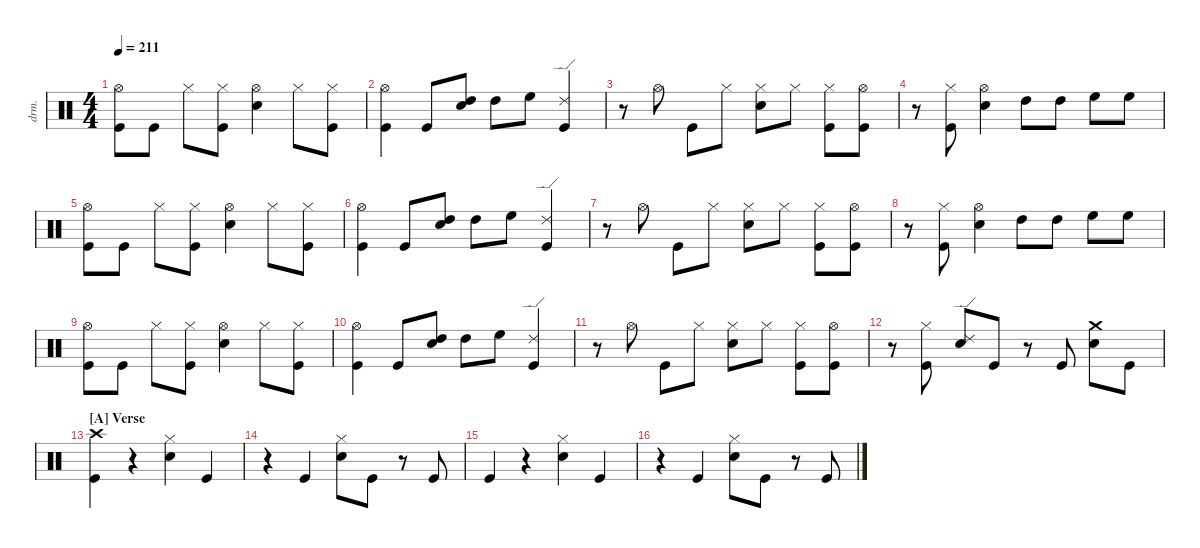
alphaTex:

\defaultSystemsLayout 4
\hideDynamics
\bracketExtendMode nobrackets
\track ("Drums" "drm.") {instrument percussion}
\staff {score}
\articulation defaults
\ts (4 4)
\tempo 211
\clef neutral
\ks c
("Kick (hit)" "Hi-Hat (open)"{acc #}).8{dy f} "Kick (hit)".8{dy fff} "Hi-Hat (closed)"{acc #}.8{dy ff} ("Kick (hit)" "Hi-Hat (closed)"{acc #}).8 ("Snare (hit) 2" "Hi-Hat (open)"{acc #}).4 "Hi-Hat (closed)"{acc #}.8 ("Kick (hit)" "Hi-Hat (closed)"{acc #}).8{dy f} |
("Kick (hit)" "Hi-Hat (open)"{acc #}).4{dy fff} "Kick (hit)".8{dy ff} ("Snare (hit) 2" "High Tom (hit)").8 "High Tom (hit)".8{dy mp} "High Floor Tom (hit)".8{dy ff} ("Kick (hit)" "Ride (edge) 2").4 |
r.8 "Hi-Hat (open)"{acc #}.8 "Kick (hit)".8 "Hi-Hat (closed)"{acc #}.8{dy p} ("Snare (hit) 2" "Hi-Hat (closed)"{acc #}).8{dy ff} "Hi-Hat (closed)"{acc #}.8{dy mp} ("Kick (hit)" "Hi-Hat (closed)"{acc #}).8{dy f} ("Kick (hit)" "Hi-Hat (open)"{acc #}).8{dy fff} |
r.8 ("Kick (hit)" "Hi-Hat (closed)"{acc #}).8{dy ff} ("Snare (hit) 2" "Hi-Hat (open)"{acc #}).4 "High Tom (hit)".8 "High Tom (hit)".8{dy f} "High Floor Tom (hit)".8{dy ff} "High Floor Tom (hit)".8{dy f} |
("Kick (hit)" "Hi-Hat (open)"{acc #}).8 "Kick (hit)".8{dy fff} "Hi-Hat (closed)"{acc #}.8{dy ff} ("Kick (hit)" "Hi-Hat (closed)"{acc #}).8 ("Snare (hit) 2" "Hi-Hat (open)"{acc #}).4 "Hi-Hat (closed)"{acc #}.8 ("Kick (hit)" "Hi-Hat (closed)"{acc #}).8{dy f} |
("Kick (hit)" "Hi-Hat (open)"{acc #}).4{dy fff} "Kick (hit)".8{dy ff} ("Snare (hit) 2" "High Tom (hit)").8 "High Tom (hit)".8{dy mp} "High Floor Tom (hit)".8{dy ff} ("Kick (hit)" "Ride (edge) 2").4 |
r.8 "Hi-Hat (open)"{acc #}.8 "Kick (hit)".8 "Hi-Hat (closed)"{acc #}.8{dy mp} ("Snare (hit) 2" "Hi-Hat (closed)"{acc #}).8{dy ff} "Hi-Hat (closed)"{acc #}.8{dy mp} ("Kick (hit)" "Hi-Hat (closed)"{acc #}).8{dy ff} ("Kick (hit)" "Hi-Hat (open)"{acc #}).8 |
r.8 ("Kick (hit)" "Hi-Hat (closed)"{acc #}).8 ("Snare (hit) 2" "Hi-Hat (open)"{acc #}).4 "High Tom (hit)".8 "High Tom (hit)".8{dy f} "High Floor Tom (hit)".8{dy ff} "High Floor Tom (hit)".8{dy f} |
("Kick (hit)" "Hi-Hat (open)"{acc #}).8 "Kick (hit)".8{dy fff} "Hi-Hat (closed)"{acc #}.8{dy ff} ("Kick (hit)" "Hi-Hat (closed)"{acc #}).8 ("Snare (hit) 2" "Hi-Hat (open)"{acc #}).4 "Hi-Hat (closed)"{acc #}.8 ("Kick (hit)" "Hi-Hat (closed)"{acc #}).8{dy f} |
("Kick (hit)" "Hi-Hat (open)"{acc #}).4{dy fff} "Kick (hit)".8{dy ff} ("Snare (hit) 2" "High Tom (hit)").8 "High Tom (hit)".8{dy mp} "High Floor Tom (hit)".8{dy ff} ("Kick (hit)" "Ride (edge) 2").4 |
r.8 "Hi-Hat (open)"{acc #}.8 "Kick (hit)".8 "Hi-Hat (closed)"{acc #}.8{dy p} ("Snare (hit) 2" "Hi-Hat (closed)"{acc #}).8{dy ff} "Hi-Hat (closed)"{acc #}.8{dy mp} ("Kick (hit)" "Hi-Hat (closed)"{acc #}).8{dy ff} ("Kick (hit)" "Hi-Hat (open)"{acc #}).8 |
r.8 ("Kick (hit)" "Hi-Hat (closed)"{acc #}).8 ("Snare (hit) 2" "Ride (edge) 2").8 "Kick (hit)".8 r.8 "Kick (hit)".8 ("Snare (hit) 2" "Crash medium (hit)").8 "Kick (hit)".8{dy f} |
\section ("A" "Verse")
("Kick (hit)" "Crash high (hit)"{acc #}).4{dy fff} r.4 ("Snare (hit) 2" "Hi-Hat (closed)"{acc #}).4{dy ff} "Kick (hit)".4 |
r.4 "Kick (hit)".4 ("Snare (hit) 2" "Hi-Hat (closed)"{acc #}).8 "Kick (hit)".8 r.8 "Kick (hit)".8{dy mp} |
"Kick (hit)".4{dy fff} r.4 ("Snare (hit) 2" "Hi-Hat (closed)"{acc #}).4{dy ff} "Kick (hit)".4 |
r.4 "Kick (hit)".4 ("Snare (hit) 2" "Hi-Hat (closed)"{acc #}).8 "Kick (hit)".8 r.8 "Kick (hit)".8{dy mp}
